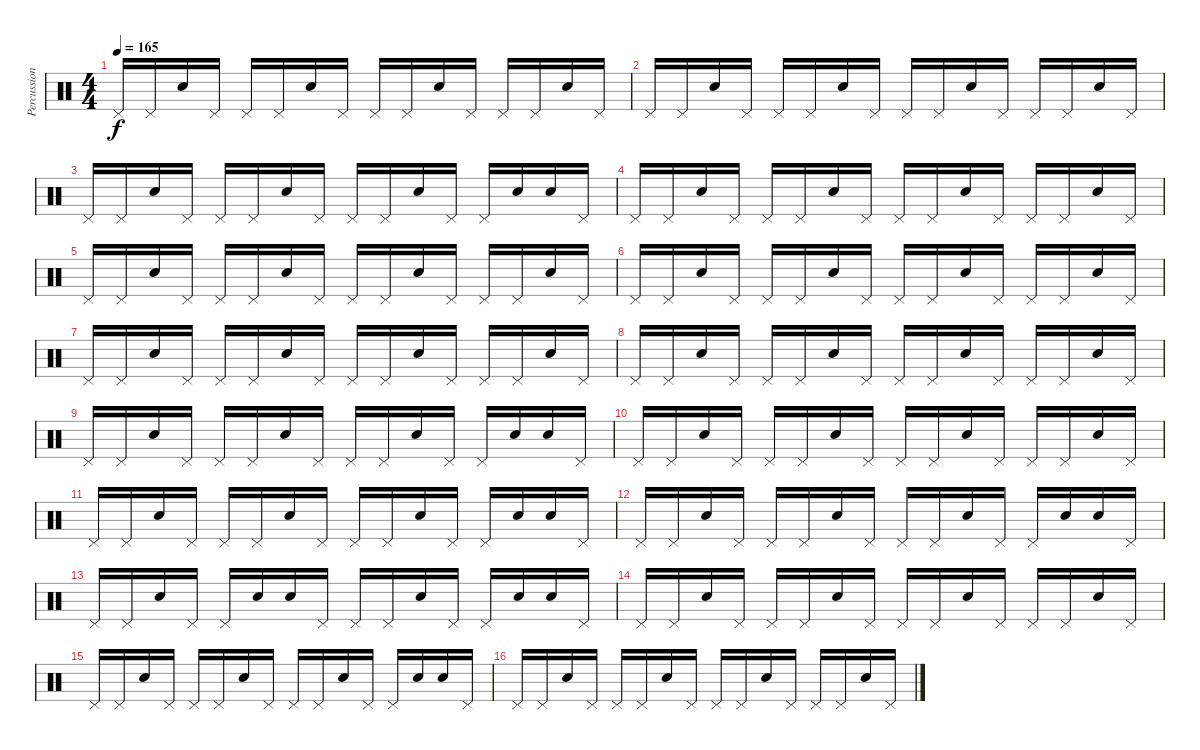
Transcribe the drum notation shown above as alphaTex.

\track ("Percussions" "Percussion") {instrument percussion}
\staff {score}
\articulation defaults
\ts (4 4)
\tempo 165
\clef neutral
\ks c "Pedal Hi-Hat (hit)".16{dy f} "Pedal Hi-Hat (hit)".16 "Snare (hit) 2".16 "Pedal Hi-Hat (hit)".16 "Pedal Hi-Hat (hit)".16 "Pedal Hi-Hat (hit)".16 "Snare (hit) 2".16 "Pedal Hi-Hat (hit)".16 "Pedal Hi-Hat (hit)".16 "Pedal Hi-Hat (hit)".16 "Snare (hit) 2".16 "Pedal Hi-Hat (hit)".16 "Pedal Hi-Hat (hit)".16 "Pedal Hi-Hat (hit)".16 "Snare (hit) 2".16 "Pedal Hi-Hat (hit)".16
|
"Pedal Hi-Hat (hit)".16 "Pedal Hi-Hat (hit)".16 "Snare (hit) 2".16 "Pedal Hi-Hat (hit)".16 "Pedal Hi-Hat (hit)".16 "Pedal Hi-Hat (hit)".16 "Snare (hit) 2".16 "Pedal Hi-Hat (hit)".16 "Pedal Hi-Hat (hit)".16 "Pedal Hi-Hat (hit)".16 "Snare (hit) 2".16 "Pedal Hi-Hat (hit)".16 "Pedal Hi-Hat (hit)".16 "Pedal Hi-Hat (hit)".16 "Snare (hit) 2".16 "Pedal Hi-Hat (hit)".16 |
"Pedal Hi-Hat (hit)".16 "Pedal Hi-Hat (hit)".16 "Snare (hit) 2".16 "Pedal Hi-Hat (hit)".16 "Pedal Hi-Hat (hit)".16 "Pedal Hi-Hat (hit)".16 "Snare (hit) 2".16 "Pedal Hi-Hat (hit)".16 "Pedal Hi-Hat (hit)".16 "Pedal Hi-Hat (hit)".16 "Snare (hit) 2".16 "Pedal Hi-Hat (hit)".16 "Pedal Hi-Hat (hit)".16 "Snare (hit) 2".16 "Snare (hit) 2".16 "Pedal Hi-Hat (hit)".16 |
"Pedal Hi-Hat (hit)".16 "Pedal Hi-Hat (hit)".16 "Snare (hit) 2".16 "Pedal Hi-Hat (hit)".16 "Pedal Hi-Hat (hit)".16 "Pedal Hi-Hat (hit)".16 "Snare (hit) 2".16 "Pedal Hi-Hat (hit)".16 "Pedal Hi-Hat (hit)".16 "Pedal Hi-Hat (hit)".16 "Snare (hit) 2".16 "Pedal Hi-Hat (hit)".16 "Pedal Hi-Hat (hit)".16 "Pedal Hi-Hat (hit)".16 "Snare (hit) 2".16 "Pedal Hi-Hat (hit)".16 |
"Pedal Hi-Hat (hit)".16 "Pedal Hi-Hat (hit)".16 "Snare (hit) 2".16 "Pedal Hi-Hat (hit)".16 "Pedal Hi-Hat (hit)".16 "Pedal Hi-Hat (hit)".16 "Snare (hit) 2".16 "Pedal Hi-Hat (hit)".16 "Pedal Hi-Hat (hit)".16 "Pedal Hi-Hat (hit)".16 "Snare (hit) 2".16 "Pedal Hi-Hat (hit)".16 "Pedal Hi-Hat (hit)".16 "Pedal Hi-Hat (hit)".16 "Snare (hit) 2".16 "Pedal Hi-Hat (hit)".16 |
"Pedal Hi-Hat (hit)".16 "Pedal Hi-Hat (hit)".16 "Snare (hit) 2".16 "Pedal Hi-Hat (hit)".16 "Pedal Hi-Hat (hit)".16 "Pedal Hi-Hat (hit)".16 "Snare (hit) 2".16 "Pedal Hi-Hat (hit)".16 "Pedal Hi-Hat (hit)".16 "Pedal Hi-Hat (hit)".16 "Snare (hit) 2".16 "Pedal Hi-Hat (hit)".16 "Pedal Hi-Hat (hit)".16 "Pedal Hi-Hat (hit)".16 "Snare (hit) 2".16 "Pedal Hi-Hat (hit)".16 |
"Pedal Hi-Hat (hit)".16 "Pedal Hi-Hat (hit)".16 "Snare (hit) 2".16 "Pedal Hi-Hat (hit)".16 "Pedal Hi-Hat (hit)".16 "Pedal Hi-Hat (hit)".16 "Snare (hit) 2".16 "Pedal Hi-Hat (hit)".16 "Pedal Hi-Hat (hit)".16 "Pedal Hi-Hat (hit)".16 "Snare (hit) 2".16 "Pedal Hi-Hat (hit)".16 "Pedal Hi-Hat (hit)".16 "Pedal Hi-Hat (hit)".16 "Snare (hit) 2".16 "Pedal Hi-Hat (hit)".16 |
"Pedal Hi-Hat (hit)".16 "Pedal Hi-Hat (hit)".16 "Snare (hit) 2".16 "Pedal Hi-Hat (hit)".16 "Pedal Hi-Hat (hit)".16 "Pedal Hi-Hat (hit)".16 "Snare (hit) 2".16 "Pedal Hi-Hat (hit)".16 "Pedal Hi-Hat (hit)".16 "Pedal Hi-Hat (hit)".16 "Snare (hit) 2".16 "Pedal Hi-Hat (hit)".16 "Pedal Hi-Hat (hit)".16 "Pedal Hi-Hat (hit)".16 "Snare (hit) 2".16 "Pedal Hi-Hat (hit)".16 |
"Pedal Hi-Hat (hit)".16 "Pedal Hi-Hat (hit)".16 "Snare (hit) 2".16 "Pedal Hi-Hat (hit)".16 "Pedal Hi-Hat (hit)".16 "Pedal Hi-Hat (hit)".16 "Snare (hit) 2".16 "Pedal Hi-Hat (hit)".16 "Pedal Hi-Hat (hit)".16 "Pedal Hi-Hat (hit)".16 "Snare (hit) 2".16 "Pedal Hi-Hat (hit)".16 "Pedal Hi-Hat (hit)".16 "Snare (hit) 2".16 "Snare (hit) 2".16 "Pedal Hi-Hat (hit)".16 |
"Pedal Hi-Hat (hit)".16 "Pedal Hi-Hat (hit)".16 "Snare (hit) 2".16 "Pedal Hi-Hat (hit)".16 "Pedal Hi-Hat (hit)".16 "Pedal Hi-Hat (hit)".16 "Snare (hit) 2".16 "Pedal Hi-Hat (hit)".16 "Pedal Hi-Hat (hit)".16 "Pedal Hi-Hat (hit)".16 "Snare (hit) 2".16 "Pedal Hi-Hat (hit)".16 "Pedal Hi-Hat (hit)".16 "Pedal Hi-Hat (hit)".16 "Snare (hit) 2".16 "Pedal Hi-Hat (hit)".16 |
"Pedal Hi-Hat (hit)".16 "Pedal Hi-Hat (hit)".16 "Snare (hit) 2".16 "Pedal Hi-Hat (hit)".16 "Pedal Hi-Hat (hit)".16 "Pedal Hi-Hat (hit)".16 "Snare (hit) 2".16 "Pedal Hi-Hat (hit)".16 "Pedal Hi-Hat (hit)".16 "Pedal Hi-Hat (hit)".16 "Snare (hit) 2".16 "Pedal Hi-Hat (hit)".16 "Pedal Hi-Hat (hit)".16 "Snare (hit) 2".16 "Snare (hit) 2".16 "Pedal Hi-Hat (hit)".16 |
"Pedal Hi-Hat (hit)".16 "Pedal Hi-Hat (hit)".16 "Snare (hit) 2".16 "Pedal Hi-Hat (hit)".16 "Pedal Hi-Hat (hit)".16 "Pedal Hi-Hat (hit)".16 "Snare (hit) 2".16 "Pedal Hi-Hat (hit)".16 "Pedal Hi-Hat (hit)".16 "Pedal Hi-Hat (hit)".16 "Snare (hit) 2".16 "Pedal Hi-Hat (hit)".16 "Pedal Hi-Hat (hit)".16 "Snare (hit) 2".16 "Snare (hit) 2".16 "Pedal Hi-Hat (hit)".16 |
"Pedal Hi-Hat (hit)".16 "Pedal Hi-Hat (hit)".16 "Snare (hit) 2".16 "Pedal Hi-Hat (hit)".16 "Pedal Hi-Hat (hit)".16 "Snare (hit) 2".16 "Snare (hit) 2".16 "Pedal Hi-Hat (hit)".16 "Pedal Hi-Hat (hit)".16 "Pedal Hi-Hat (hit)".16 "Snare (hit) 2".16 "Pedal Hi-Hat (hit)".16 "Pedal Hi-Hat (hit)".16 "Snare (hit) 2".16 "Snare (hit) 2".16 "Pedal Hi-Hat (hit)".16 |
"Pedal Hi-Hat (hit)".16 "Pedal Hi-Hat (hit)".16 "Snare (hit) 2".16 "Pedal Hi-Hat (hit)".16 "Pedal Hi-Hat (hit)".16 "Pedal Hi-Hat (hit)".16 "Snare (hit) 2".16 "Pedal Hi-Hat (hit)".16 "Pedal Hi-Hat (hit)".16 "Pedal Hi-Hat (hit)".16 "Snare (hit) 2".16 "Pedal Hi-Hat (hit)".16 "Pedal Hi-Hat (hit)".16 "Pedal Hi-Hat (hit)".16 "Snare (hit) 2".16 "Pedal Hi-Hat (hit)".16 |
"Pedal Hi-Hat (hit)".16 "Pedal Hi-Hat (hit)".16 "Snare (hit) 2".16 "Pedal Hi-Hat (hit)".16 "Pedal Hi-Hat (hit)".16 "Pedal Hi-Hat (hit)".16 "Snare (hit) 2".16 "Pedal Hi-Hat (hit)".16 "Pedal Hi-Hat (hit)".16 "Pedal Hi-Hat (hit)".16 "Snare (hit) 2".16 "Pedal Hi-Hat (hit)".16 "Pedal Hi-Hat (hit)".16 "Snare (hit) 2".16 "Snare (hit) 2".16 "Pedal Hi-Hat (hit)".16 |
"Pedal Hi-Hat (hit)".16 "Pedal Hi-Hat (hit)".16 "Snare (hit) 2".16 "Pedal Hi-Hat (hit)".16 "Pedal Hi-Hat (hit)".16 "Pedal Hi-Hat (hit)".16 "Snare (hit) 2".16 "Pedal Hi-Hat (hit)".16 "Pedal Hi-Hat (hit)".16 "Pedal Hi-Hat (hit)".16 "Snare (hit) 2".16 "Pedal Hi-Hat (hit)".16 "Pedal Hi-Hat (hit)".16 "Pedal Hi-Hat (hit)".16 "Snare (hit) 2".16 "Pedal Hi-Hat (hit)".16
